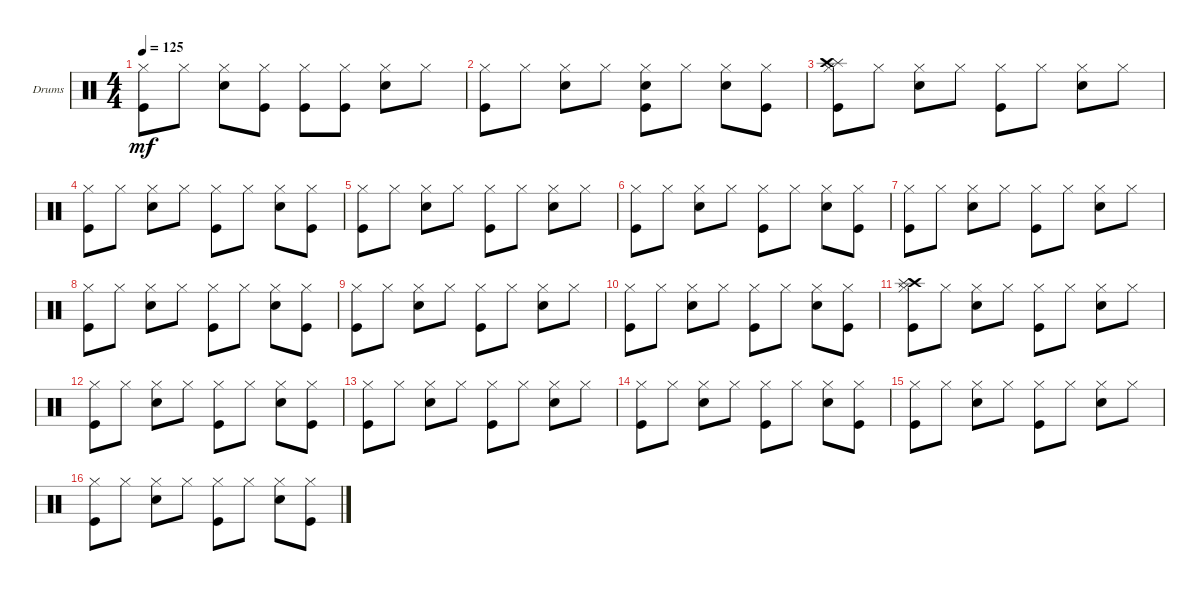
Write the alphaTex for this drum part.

\defaultSystemsLayout 4
\bracketExtendMode groupsimilarinstruments
\firstSystemTrackNameOrientation horizontal
\otherSystemsTrackNameOrientation horizontal
\track ("Drumkit" "Drums") {instrument percussion}
\staff {score}
\articulation defaults
\ts (4 4)
\tempo 125
\clef neutral
\ks c
("Kick (hit)" "Hi-Hat (closed)").8{dy mf} "Hi-Hat (closed)".8 ("Hi-Hat (closed)" "Snare (hit) 2").8 ("Hi-Hat (closed)" "Kick (hit)").8 ("Kick (hit)" "Hi-Hat (closed)").8 ("Hi-Hat (closed)" "Kick (hit)").8 ("Hi-Hat (closed)" "Snare (hit) 2").8 "Hi-Hat (closed)".8 |
("Kick (hit)" "Hi-Hat (closed)").8 "Hi-Hat (closed)".8 ("Hi-Hat (closed)" "Snare (hit) 2").8 "Hi-Hat (closed)".8 ("Kick (hit)" "Hi-Hat (closed)" "Snare (hit) 2").8 "Hi-Hat (closed)".8 ("Hi-Hat (closed)" "Snare (hit) 2").8 ("Hi-Hat (closed)" "Kick (hit)").8 |
("Kick (hit)" "Hi-Hat (closed)" "Splash (hit)" "Crash high (hit)").8 "Hi-Hat (closed)".8 ("Hi-Hat (closed)" "Snare (hit) 2").8 "Hi-Hat (closed)".8 ("Kick (hit)" "Hi-Hat (closed)").8 "Hi-Hat (closed)".8 ("Hi-Hat (closed)" "Snare (hit) 2").8 "Hi-Hat (closed)".8 |
("Kick (hit)" "Hi-Hat (closed)").8 "Hi-Hat (closed)".8 ("Hi-Hat (closed)" "Snare (hit) 2").8 "Hi-Hat (closed)".8 ("Kick (hit)" "Hi-Hat (closed)").8 "Hi-Hat (closed)".8 ("Hi-Hat (closed)" "Snare (hit) 2").8 ("Hi-Hat (closed)" "Kick (hit)").8 |
("Kick (hit)" "Hi-Hat (closed)").8 "Hi-Hat (closed)".8 ("Hi-Hat (closed)" "Snare (hit) 2").8 "Hi-Hat (closed)".8 ("Kick (hit)" "Hi-Hat (closed)").8 "Hi-Hat (closed)".8 ("Hi-Hat (closed)" "Snare (hit) 2").8 "Hi-Hat (closed)".8 |
("Kick (hit)" "Hi-Hat (closed)").8 "Hi-Hat (closed)".8 ("Hi-Hat (closed)" "Snare (hit) 2").8 "Hi-Hat (closed)".8 ("Kick (hit)" "Hi-Hat (closed)").8 "Hi-Hat (closed)".8 ("Hi-Hat (closed)" "Snare (hit) 2").8 ("Hi-Hat (closed)" "Kick (hit)").8 |
("Kick (hit)" "Hi-Hat (closed)").8 "Hi-Hat (closed)".8 ("Hi-Hat (closed)" "Snare (hit) 2").8 "Hi-Hat (closed)".8 ("Kick (hit)" "Hi-Hat (closed)").8 "Hi-Hat (closed)".8 ("Hi-Hat (closed)" "Snare (hit) 2").8 "Hi-Hat (closed)".8 |
("Kick (hit)" "Hi-Hat (closed)").8 "Hi-Hat (closed)".8 ("Hi-Hat (closed)" "Snare (hit) 2").8 "Hi-Hat (closed)".8 ("Kick (hit)" "Hi-Hat (closed)").8 "Hi-Hat (closed)".8 ("Hi-Hat (closed)" "Snare (hit) 2").8 ("Hi-Hat (closed)" "Kick (hit)").8 |
("Kick (hit)" "Hi-Hat (closed)").8 "Hi-Hat (closed)".8 ("Hi-Hat (closed)" "Snare (hit) 2").8 "Hi-Hat (closed)".8 ("Kick (hit)" "Hi-Hat (closed)").8 "Hi-Hat (closed)".8 ("Hi-Hat (closed)" "Snare (hit) 2").8 "Hi-Hat (closed)".8 |
("Kick (hit)" "Hi-Hat (closed)").8 "Hi-Hat (closed)".8 ("Hi-Hat (closed)" "Snare (hit) 2").8 "Hi-Hat (closed)".8 ("Kick (hit)" "Hi-Hat (closed)").8 "Hi-Hat (closed)".8 ("Hi-Hat (closed)" "Snare (hit) 2").8 ("Hi-Hat (closed)" "Kick (hit)").8 |
("Kick (hit)" "Hi-Hat (closed)" "Crash high (hit)" "Splash (hit)").8 "Hi-Hat (closed)".8 ("Hi-Hat (closed)" "Snare (hit) 2").8 "Hi-Hat (closed)".8 ("Kick (hit)" "Hi-Hat (closed)").8 "Hi-Hat (closed)".8 ("Hi-Hat (closed)" "Snare (hit) 2").8 "Hi-Hat (closed)".8 |
("Kick (hit)" "Hi-Hat (closed)").8 "Hi-Hat (closed)".8 ("Hi-Hat (closed)" "Snare (hit) 2").8 "Hi-Hat (closed)".8 ("Kick (hit)" "Hi-Hat (closed)").8 "Hi-Hat (closed)".8 ("Hi-Hat (closed)" "Snare (hit) 2").8 ("Hi-Hat (closed)" "Kick (hit)").8 |
("Kick (hit)" "Hi-Hat (closed)").8 "Hi-Hat (closed)".8 ("Hi-Hat (closed)" "Snare (hit) 2").8 "Hi-Hat (closed)".8 ("Kick (hit)" "Hi-Hat (closed)").8 "Hi-Hat (closed)".8 ("Hi-Hat (closed)" "Snare (hit) 2").8 "Hi-Hat (closed)".8 |
("Kick (hit)" "Hi-Hat (closed)").8 "Hi-Hat (closed)".8 ("Hi-Hat (closed)" "Snare (hit) 2").8 "Hi-Hat (closed)".8 ("Kick (hit)" "Hi-Hat (closed)").8 "Hi-Hat (closed)".8 ("Hi-Hat (closed)" "Snare (hit) 2").8 ("Hi-Hat (closed)" "Kick (hit)").8 |
("Kick (hit)" "Hi-Hat (closed)").8 "Hi-Hat (closed)".8 ("Hi-Hat (closed)" "Snare (hit) 2").8 "Hi-Hat (closed)".8 ("Kick (hit)" "Hi-Hat (closed)").8 "Hi-Hat (closed)".8 ("Hi-Hat (closed)" "Snare (hit) 2").8 "Hi-Hat (closed)".8 |
("Kick (hit)" "Hi-Hat (closed)").8 "Hi-Hat (closed)".8 ("Hi-Hat (closed)" "Snare (hit) 2").8 "Hi-Hat (closed)".8 ("Kick (hit)" "Hi-Hat (closed)").8 "Hi-Hat (closed)".8 ("Hi-Hat (closed)" "Snare (hit) 2").8 ("Hi-Hat (closed)" "Kick (hit)").8
